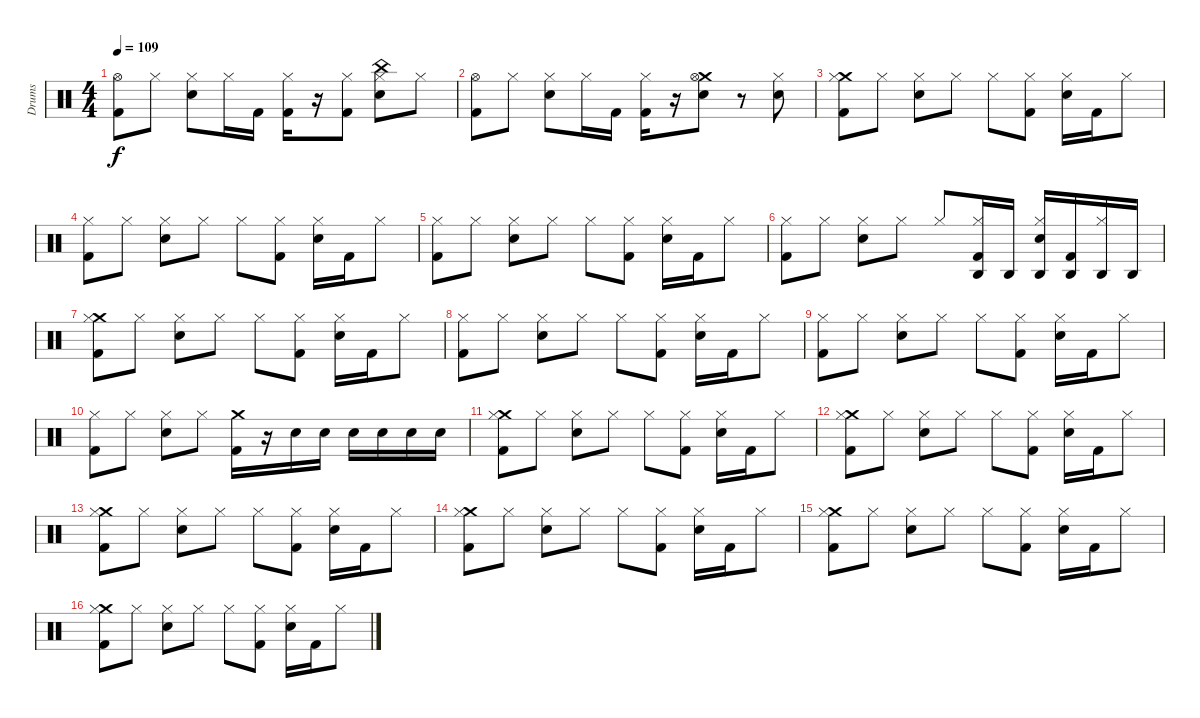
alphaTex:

\track ("Drums" "Drums") {instrument percussion}
\staff {score}
\articulation defaults
\ts (4 4)
\tempo 109
\clef neutral
\ks c
("Hi-Hat (open)" "Kick (hit) 2").8{dy f} "Hi-Hat (closed)".8 ("Hi-Hat (closed)" "Snare (hit) 2").8 "Hi-Hat (closed)".16 "Kick (hit) 2".16 ("Hi-Hat (closed)" "Kick (hit) 2").16 r.16 ("Hi-Hat (closed)" "Kick (hit) 2").8 ("China (hit)" "Hi-Hat (closed)" "Snare (hit) 2").8 "Hi-Hat (closed)".8 |
("Hi-Hat (open)" "Kick (hit) 2").8 "Hi-Hat (closed)".8 ("Hi-Hat (closed)" "Snare (hit) 2").8 "Hi-Hat (closed)".16 "Kick (hit) 2".16 ("Hi-Hat (closed)" "Kick (hit) 2").16 r.16 ("Crash medium (hit)" "Hi-Hat (open)" "Snare (hit) 2").8 r.8 ("Snare (hit) 2" "Hi-Hat (closed)").8 |
("Crash medium (hit)" "Hi-Hat (closed)" "Kick (hit) 2").8 "Hi-Hat (closed)".8 ("Hi-Hat (closed)" "Snare (hit) 2").8 "Hi-Hat (closed)".8 "Hi-Hat (closed)".8 ("Hi-Hat (closed)" "Kick (hit) 2").8 ("Hi-Hat (closed)" "Snare (hit) 2").16 "Kick (hit) 2".16 "Hi-Hat (closed)".8 |
("Hi-Hat (closed)" "Kick (hit) 2").8 "Hi-Hat (closed)".8 ("Hi-Hat (closed)" "Snare (hit) 2").8 "Hi-Hat (closed)".8 "Hi-Hat (closed)".8 ("Hi-Hat (closed)" "Kick (hit) 2").8 ("Hi-Hat (closed)" "Snare (hit) 2").16 "Kick (hit) 2".16 "Hi-Hat (closed)".8 |
("Hi-Hat (closed)" "Kick (hit) 2").8 "Hi-Hat (closed)".8 ("Hi-Hat (closed)" "Snare (hit) 2").8 "Hi-Hat (closed)".8 "Hi-Hat (closed)".8 ("Hi-Hat (closed)" "Kick (hit) 2").8 ("Hi-Hat (closed)" "Snare (hit) 2").16 "Kick (hit) 2".16 "Hi-Hat (closed)".8 |
("Hi-Hat (closed)" "Kick (hit) 2").8 "Hi-Hat (closed)".8 ("Hi-Hat (closed)" "Snare (hit) 2").8 "Hi-Hat (closed)".8 "Hi-Hat (closed)".8 ("Agogo high (hit)" "Hi-Hat (closed)" "Kick (hit) 2").16 "Agogo high (hit)".16 ("Agogo high (hit)" "Hi-Hat (closed)" "Snare (hit) 2").16 ("Agogo high (hit)" "Kick (hit) 2").16 ("Agogo high (hit)" "Hi-Hat (closed)").16 "Agogo high (hit)".16 |
("Crash medium (hit)" "Hi-Hat (closed)" "Kick (hit) 2").8 "Hi-Hat (closed)".8 ("Hi-Hat (closed)" "Snare (hit) 2").8 "Hi-Hat (closed)".8 "Hi-Hat (closed)".8 ("Hi-Hat (closed)" "Kick (hit) 2").8 ("Hi-Hat (closed)" "Snare (hit) 2").16 "Kick (hit) 2".16 "Hi-Hat (closed)".8 |
("Hi-Hat (closed)" "Kick (hit) 2").8 "Hi-Hat (closed)".8 ("Hi-Hat (closed)" "Snare (hit) 2").8 "Hi-Hat (closed)".8 "Hi-Hat (closed)".8 ("Hi-Hat (closed)" "Kick (hit) 2").8 ("Hi-Hat (closed)" "Snare (hit) 2").16 "Kick (hit) 2".16 "Hi-Hat (closed)".8 |
("Hi-Hat (closed)" "Kick (hit) 2").8 "Hi-Hat (closed)".8 ("Hi-Hat (closed)" "Snare (hit) 2").8 "Hi-Hat (closed)".8 "Hi-Hat (closed)".8 ("Hi-Hat (closed)" "Kick (hit) 2").8 ("Hi-Hat (closed)" "Snare (hit) 2").16 "Kick (hit) 2".16 "Hi-Hat (closed)".8 |
("Hi-Hat (closed)" "Kick (hit) 2").8 "Hi-Hat (closed)".8 ("Hi-Hat (closed)" "Snare (hit) 2").8 "Hi-Hat (closed)".8 ("Crash medium (hit)" "Kick (hit) 2").16 r.16 "Snare (hit) 2".16 "Snare (hit) 2".16 "Snare (hit) 2".16 "Snare (hit) 2".16 "Snare (hit) 2".16 "Snare (hit) 2".16 |
("Crash medium (hit)" "Hi-Hat (closed)" "Kick (hit) 2").8 "Hi-Hat (closed)".8 ("Hi-Hat (closed)" "Snare (hit) 2").8 "Hi-Hat (closed)".8 "Hi-Hat (closed)".8 ("Hi-Hat (closed)" "Kick (hit) 2").8 ("Hi-Hat (closed)" "Snare (hit) 2").16 "Kick (hit) 2".16 "Hi-Hat (closed)".8 |
("Crash medium (hit)" "Hi-Hat (closed)" "Kick (hit) 2").8 "Hi-Hat (closed)".8 ("Hi-Hat (closed)" "Snare (hit) 2").8 "Hi-Hat (closed)".8 "Hi-Hat (closed)".8 ("Hi-Hat (closed)" "Kick (hit) 2").8 ("Hi-Hat (closed)" "Snare (hit) 2").16 "Kick (hit) 2".16 "Hi-Hat (closed)".8 |
("Crash medium (hit)" "Hi-Hat (closed)" "Kick (hit) 2").8 "Hi-Hat (closed)".8 ("Hi-Hat (closed)" "Snare (hit) 2").8 "Hi-Hat (closed)".8 "Hi-Hat (closed)".8 ("Hi-Hat (closed)" "Kick (hit) 2").8 ("Hi-Hat (closed)" "Snare (hit) 2").16 "Kick (hit) 2".16 "Hi-Hat (closed)".8 |
("Crash medium (hit)" "Hi-Hat (closed)" "Kick (hit) 2").8 "Hi-Hat (closed)".8 ("Hi-Hat (closed)" "Snare (hit) 2").8 "Hi-Hat (closed)".8 "Hi-Hat (closed)".8 ("Hi-Hat (closed)" "Kick (hit) 2").8 ("Hi-Hat (closed)" "Snare (hit) 2").16 "Kick (hit) 2".16 "Hi-Hat (closed)".8 |
("Crash medium (hit)" "Hi-Hat (closed)" "Kick (hit) 2").8 "Hi-Hat (closed)".8 ("Hi-Hat (closed)" "Snare (hit) 2").8 "Hi-Hat (closed)".8 "Hi-Hat (closed)".8 ("Hi-Hat (closed)" "Kick (hit) 2").8 ("Hi-Hat (closed)" "Snare (hit) 2").16 "Kick (hit) 2".16 "Hi-Hat (closed)".8 |
("Crash medium (hit)" "Hi-Hat (closed)" "Kick (hit) 2").8 "Hi-Hat (closed)".8 ("Hi-Hat (closed)" "Snare (hit) 2").8 "Hi-Hat (closed)".8 "Hi-Hat (closed)".8 ("Hi-Hat (closed)" "Kick (hit) 2").8 ("Hi-Hat (closed)" "Snare (hit) 2").16 "Kick (hit) 2".16 "Hi-Hat (closed)".8
